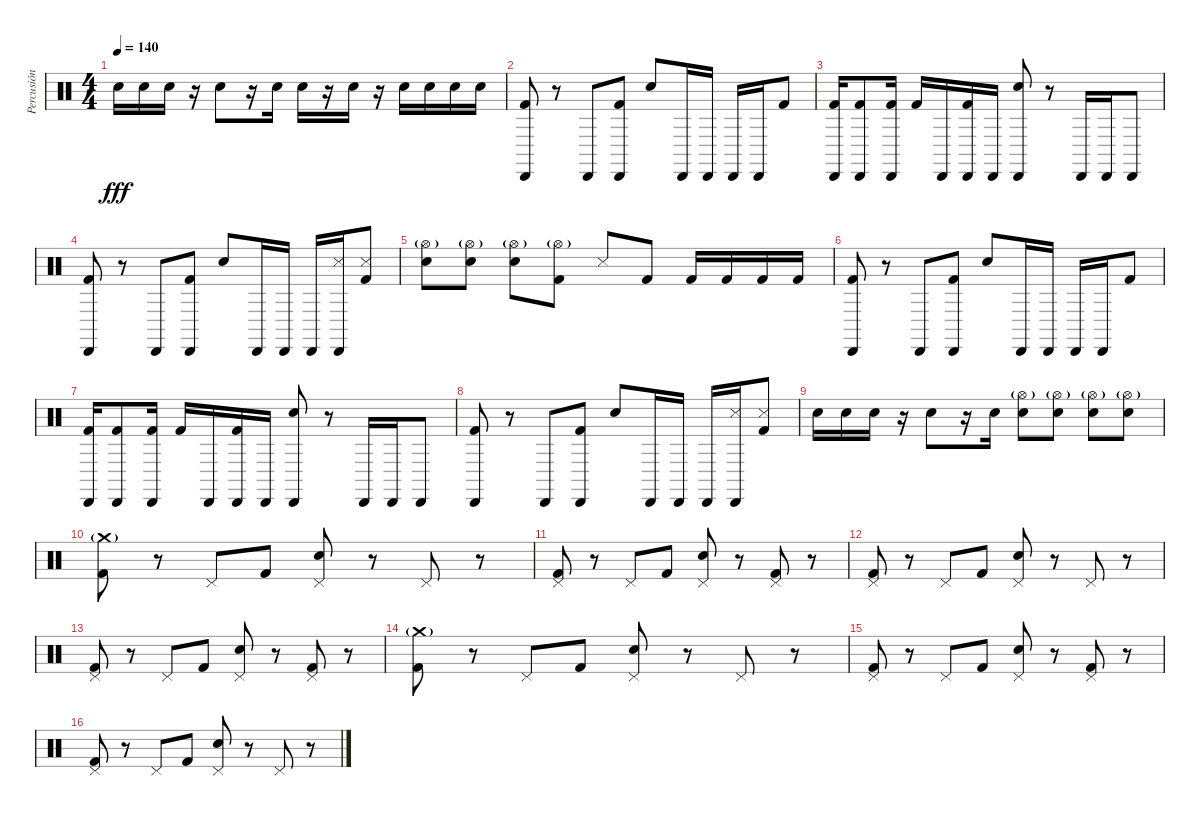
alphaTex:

\track ("Percusión" "Percusión") {instrument percussion}
\staff {score}
\articulation defaults
\ts (4 4)
\tempo 140
\clef neutral
\ks c "Snare (hit) 2".16{dy fff} "Snare (hit) 2".16 "Snare (hit) 2".16
r.16 "Snare (hit) 2".8 r.16 "Snare (hit) 2".16 "Snare (hit) 2".16 r.16 "Snare (hit) 2".16 r.16 "Snare (hit) 2".16 "Snare (hit) 2".16 "Snare (hit) 2".16 "Snare (hit) 2".16 |
("Cabasa (hit)" "Kick (hit) 2").8 r.8 "Cabasa (hit)".8 ("Cabasa (hit)" "Kick (hit) 2").8 "Snare (hit) 2".8 "Cabasa (hit)".16 "Cabasa (hit)".16 "Cabasa (hit)".16 "Cabasa (hit)".16 "Kick (hit) 2".8 |
("Cabasa (hit)" "Kick (hit) 2").16 ("Cabasa (hit)" "Kick (hit) 2").8 ("Cabasa (hit)" "Kick (hit) 2").16 "Kick (hit) 2".16 "Cabasa (hit)".16 ("Cabasa (hit)" "Kick (hit) 2").16 "Cabasa (hit)".16 ("Cabasa (hit)" "Snare (hit) 2").8 r.8 "Cabasa (hit)".16 "Cabasa (hit)".16 "Cabasa (hit)".8 |
("Cabasa (hit)" "Kick (hit) 2").8 r.8 "Cabasa (hit)".8 ("Cabasa (hit)" "Kick (hit) 2").8 "Snare (hit) 2".8 "Cabasa (hit)".16 "Cabasa (hit)".16 "Cabasa (hit)".16 ("Metronome (hit)" "Cabasa (hit)").16 ("Metronome (hit)" "Kick (hit) 2").8 |
("Hi-Hat (open)"{g} "Snare (hit) 2").8 ("Hi-Hat (open)"{g} "Snare (hit) 2").8 ("Hi-Hat (open)"{g} "Snare (hit) 2").8 ("Hi-Hat (open)"{g} "Kick (hit) 2").8 "Metronome (hit)".8 "Kick (hit) 2".8 "Kick (hit) 2".16 "Kick (hit) 2".16 "Kick (hit) 2".16 "Kick (hit) 2".16 |
("Cabasa (hit)" "Kick (hit) 2").8 r.8 "Cabasa (hit)".8 ("Cabasa (hit)" "Kick (hit) 2").8 "Snare (hit) 2".8 "Cabasa (hit)".16 "Cabasa (hit)".16 "Cabasa (hit)".16 "Cabasa (hit)".16 "Kick (hit) 2".8 |
("Cabasa (hit)" "Kick (hit) 2").16 ("Cabasa (hit)" "Kick (hit) 2").8 ("Cabasa (hit)" "Kick (hit) 2").16 "Kick (hit) 2".16 "Cabasa (hit)".16 ("Cabasa (hit)" "Kick (hit) 2").16 "Cabasa (hit)".16 ("Cabasa (hit)" "Snare (hit) 2").8 r.8 "Cabasa (hit)".16 "Cabasa (hit)".16 "Cabasa (hit)".8 |
("Cabasa (hit)" "Kick (hit) 2").8 r.8 "Cabasa (hit)".8 ("Cabasa (hit)" "Kick (hit) 2").8 "Snare (hit) 2".8 "Cabasa (hit)".16 "Cabasa (hit)".16 "Cabasa (hit)".16 ("Metronome (hit)" "Cabasa (hit)").16 ("Metronome (hit)" "Kick (hit) 2").8 |
"Snare (hit) 2".16 "Snare (hit) 2".16 "Snare (hit) 2".16 r.16 "Snare (hit) 2".8 r.16 "Snare (hit) 2".16 ("Hi-Hat (open)"{g} "Snare (hit) 2").8 ("Hi-Hat (open)"{g} "Snare (hit) 2").8 ("Hi-Hat (open)"{g} "Snare (hit) 2").8 ("Hi-Hat (open)"{g} "Snare (hit) 2").8 |
("Crash medium (hit)"{g} "Kick (hit) 2").8 r.8 "Pedal Hi-Hat (hit)".8 "Kick (hit) 2".8 ("Pedal Hi-Hat (hit)" "Snare (hit) 2").8 r.8 "Pedal Hi-Hat (hit)".8 r.8 |
("Pedal Hi-Hat (hit)" "Kick (hit) 2").8 r.8 "Pedal Hi-Hat (hit)".8 "Kick (hit) 2".8 ("Pedal Hi-Hat (hit)" "Snare (hit) 2").8 r.8 ("Pedal Hi-Hat (hit)" "Kick (hit) 2").8 r.8 |
("Pedal Hi-Hat (hit)" "Kick (hit) 2").8 r.8 "Pedal Hi-Hat (hit)".8 "Kick (hit) 2".8 ("Pedal Hi-Hat (hit)" "Snare (hit) 2").8 r.8 "Pedal Hi-Hat (hit)".8 r.8 |
("Pedal Hi-Hat (hit)" "Kick (hit) 2").8 r.8 "Pedal Hi-Hat (hit)".8 "Kick (hit) 2".8 ("Pedal Hi-Hat (hit)" "Snare (hit) 2").8 r.8 ("Pedal Hi-Hat (hit)" "Kick (hit) 2").8 r.8 |
("Crash medium (hit)"{g} "Kick (hit) 2").8 r.8 "Pedal Hi-Hat (hit)".8 "Kick (hit) 2".8 ("Pedal Hi-Hat (hit)" "Snare (hit) 2").8 r.8 "Pedal Hi-Hat (hit)".8 r.8 |
("Pedal Hi-Hat (hit)" "Kick (hit) 2").8 r.8 "Pedal Hi-Hat (hit)".8 "Kick (hit) 2".8 ("Pedal Hi-Hat (hit)" "Snare (hit) 2").8 r.8 ("Pedal Hi-Hat (hit)" "Kick (hit) 2").8 r.8 |
("Pedal Hi-Hat (hit)" "Kick (hit) 2").8 r.8 "Pedal Hi-Hat (hit)".8 "Kick (hit) 2".8 ("Pedal Hi-Hat (hit)" "Snare (hit) 2").8 r.8 "Pedal Hi-Hat (hit)".8 r.8
